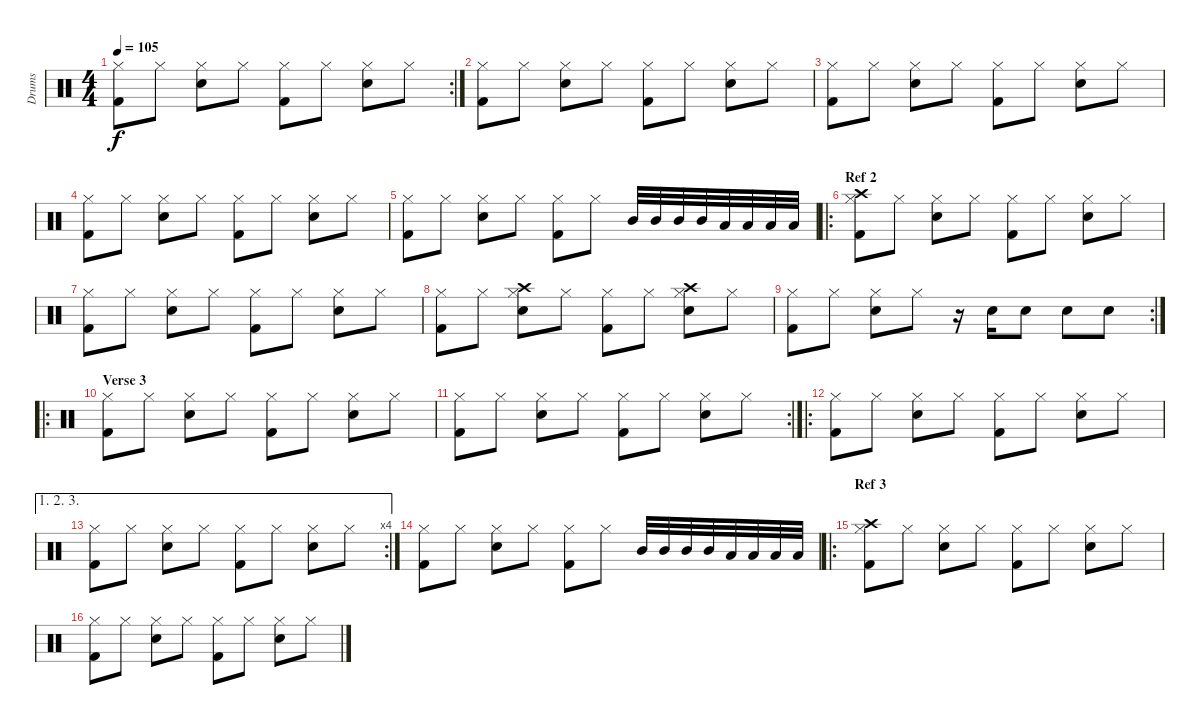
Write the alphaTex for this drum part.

\track ("Drums" "Drums") {instrument percussion}
\staff {score}
\articulation defaults
\rc 2
\ts (4 4)
\tempo 105
\clef neutral
\ks c
("Hi-Hat (closed)" "Kick (hit) 2").8{dy f} "Hi-Hat (closed)".8 ("Hi-Hat (closed)" "Snare (hit) 2").8 "Hi-Hat (closed)".8 ("Hi-Hat (closed)" "Kick (hit) 2").8 "Hi-Hat (closed)".8 ("Hi-Hat (closed)" "Snare (hit) 2").8 "Hi-Hat (closed)".8 |
("Hi-Hat (closed)" "Kick (hit) 2").8 "Hi-Hat (closed)".8 ("Hi-Hat (closed)" "Snare (hit) 2").8 "Hi-Hat (closed)".8 ("Hi-Hat (closed)" "Kick (hit) 2").8 "Hi-Hat (closed)".8 ("Hi-Hat (closed)" "Snare (hit) 2").8 "Hi-Hat (closed)".8 |
("Hi-Hat (closed)" "Kick (hit) 2").8 "Hi-Hat (closed)".8 ("Hi-Hat (closed)" "Snare (hit) 2").8 "Hi-Hat (closed)".8 ("Hi-Hat (closed)" "Kick (hit) 2").8 "Hi-Hat (closed)".8 ("Hi-Hat (closed)" "Snare (hit) 2").8 "Hi-Hat (closed)".8 |
("Hi-Hat (closed)" "Kick (hit) 2").8 "Hi-Hat (closed)".8 ("Hi-Hat (closed)" "Snare (hit) 2").8 "Hi-Hat (closed)".8 ("Hi-Hat (closed)" "Kick (hit) 2").8 "Hi-Hat (closed)".8 ("Hi-Hat (closed)" "Snare (hit) 2").8 "Hi-Hat (closed)".8 |
("Hi-Hat (closed)" "Kick (hit) 2").8 "Hi-Hat (closed)".8 ("Hi-Hat (closed)" "Snare (hit) 2").8 "Hi-Hat (closed)".8 ("Hi-Hat (closed)" "Kick (hit) 2").8 "Hi-Hat (closed)".8 "Mid Tom (hit)".32 "Mid Tom (hit)".32 "Mid Tom (hit)".32 "Mid Tom (hit)".32 "Low Tom (hit)".32 "Low Tom (hit)".32 "Low Tom (hit)".32 "Low Tom (hit)".32 |
\ro
\section ("" "Ref 2")
("Hi-Hat (closed)" "Crash high (hit)" "Kick (hit) 2").8 "Hi-Hat (closed)".8 ("Hi-Hat (closed)" "Snare (hit) 2").8 "Hi-Hat (closed)".8 ("Hi-Hat (closed)" "Kick (hit) 2").8 "Hi-Hat (closed)".8 ("Hi-Hat (closed)" "Snare (hit) 2").8 "Hi-Hat (closed)".8 |
("Hi-Hat (closed)" "Kick (hit) 2").8 "Hi-Hat (closed)".8 ("Hi-Hat (closed)" "Snare (hit) 2").8 "Hi-Hat (closed)".8 ("Hi-Hat (closed)" "Kick (hit) 2").8 "Hi-Hat (closed)".8 ("Hi-Hat (closed)" "Snare (hit) 2").8 "Hi-Hat (closed)".8 |
("Hi-Hat (closed)" "Kick (hit) 2").8 "Hi-Hat (closed)".8 ("Hi-Hat (closed)" "Crash high (hit)" "Snare (hit) 2").8 "Hi-Hat (closed)".8 ("Hi-Hat (closed)" "Kick (hit) 2").8 "Hi-Hat (closed)".8 ("Hi-Hat (closed)" "Crash high (hit)" "Snare (hit) 2").8 "Hi-Hat (closed)".8 |
\rc 2
("Hi-Hat (closed)" "Kick (hit) 2").8 "Hi-Hat (closed)".8 ("Hi-Hat (closed)" "Snare (hit) 2").8 "Hi-Hat (closed)".8 r.16 "Snare (hit) 2".16 "Snare (hit) 2".8 "Snare (hit) 2".8 "Snare (hit) 2".8 |
\ro
\section ("" "Verse 3")
("Hi-Hat (closed)" "Kick (hit) 2").8 "Hi-Hat (closed)".8 ("Hi-Hat (closed)" "Snare (hit) 2").8 "Hi-Hat (closed)".8 ("Hi-Hat (closed)" "Kick (hit) 2").8 "Hi-Hat (closed)".8 ("Hi-Hat (closed)" "Snare (hit) 2").8 "Hi-Hat (closed)".8 |
\rc 2
("Hi-Hat (closed)" "Kick (hit) 2").8 "Hi-Hat (closed)".8 ("Hi-Hat (closed)" "Snare (hit) 2").8 "Hi-Hat (closed)".8 ("Hi-Hat (closed)" "Kick (hit) 2").8 "Hi-Hat (closed)".8 ("Hi-Hat (closed)" "Snare (hit) 2").8 "Hi-Hat (closed)".8 |
\ro
("Hi-Hat (closed)" "Kick (hit) 2").8 "Hi-Hat (closed)".8 ("Hi-Hat (closed)" "Snare (hit) 2").8 "Hi-Hat (closed)".8 ("Hi-Hat (closed)" "Kick (hit) 2").8 "Hi-Hat (closed)".8 ("Hi-Hat (closed)" "Snare (hit) 2").8 "Hi-Hat (closed)".8 |
\ae (1 2 3)
\rc 4
("Hi-Hat (closed)" "Kick (hit) 2").8 "Hi-Hat (closed)".8 ("Hi-Hat (closed)" "Snare (hit) 2").8 "Hi-Hat (closed)".8 ("Hi-Hat (closed)" "Kick (hit) 2").8 "Hi-Hat (closed)".8 ("Hi-Hat (closed)" "Snare (hit) 2").8 "Hi-Hat (closed)".8 |
("Hi-Hat (closed)" "Kick (hit) 2").8 "Hi-Hat (closed)".8 ("Hi-Hat (closed)" "Snare (hit) 2").8 "Hi-Hat (closed)".8 ("Hi-Hat (closed)" "Kick (hit) 2").8 "Hi-Hat (closed)".8 "Mid Tom (hit)".32 "Mid Tom (hit)".32 "Mid Tom (hit)".32 "Mid Tom (hit)".32 "Low Tom (hit)".32 "Low Tom (hit)".32 "Low Tom (hit)".32 "Low Tom (hit)".32 |
\ro
\section ("" "Ref 3")
("Hi-Hat (closed)" "Crash high (hit)" "Kick (hit) 2").8 "Hi-Hat (closed)".8 ("Hi-Hat (closed)" "Snare (hit) 2").8 "Hi-Hat (closed)".8 ("Hi-Hat (closed)" "Kick (hit) 2").8 "Hi-Hat (closed)".8 ("Hi-Hat (closed)" "Snare (hit) 2").8 "Hi-Hat (closed)".8 |
("Hi-Hat (closed)" "Kick (hit) 2").8 "Hi-Hat (closed)".8 ("Hi-Hat (closed)" "Snare (hit) 2").8 "Hi-Hat (closed)".8 ("Hi-Hat (closed)" "Kick (hit) 2").8 "Hi-Hat (closed)".8 ("Hi-Hat (closed)" "Snare (hit) 2").8 "Hi-Hat (closed)".8
